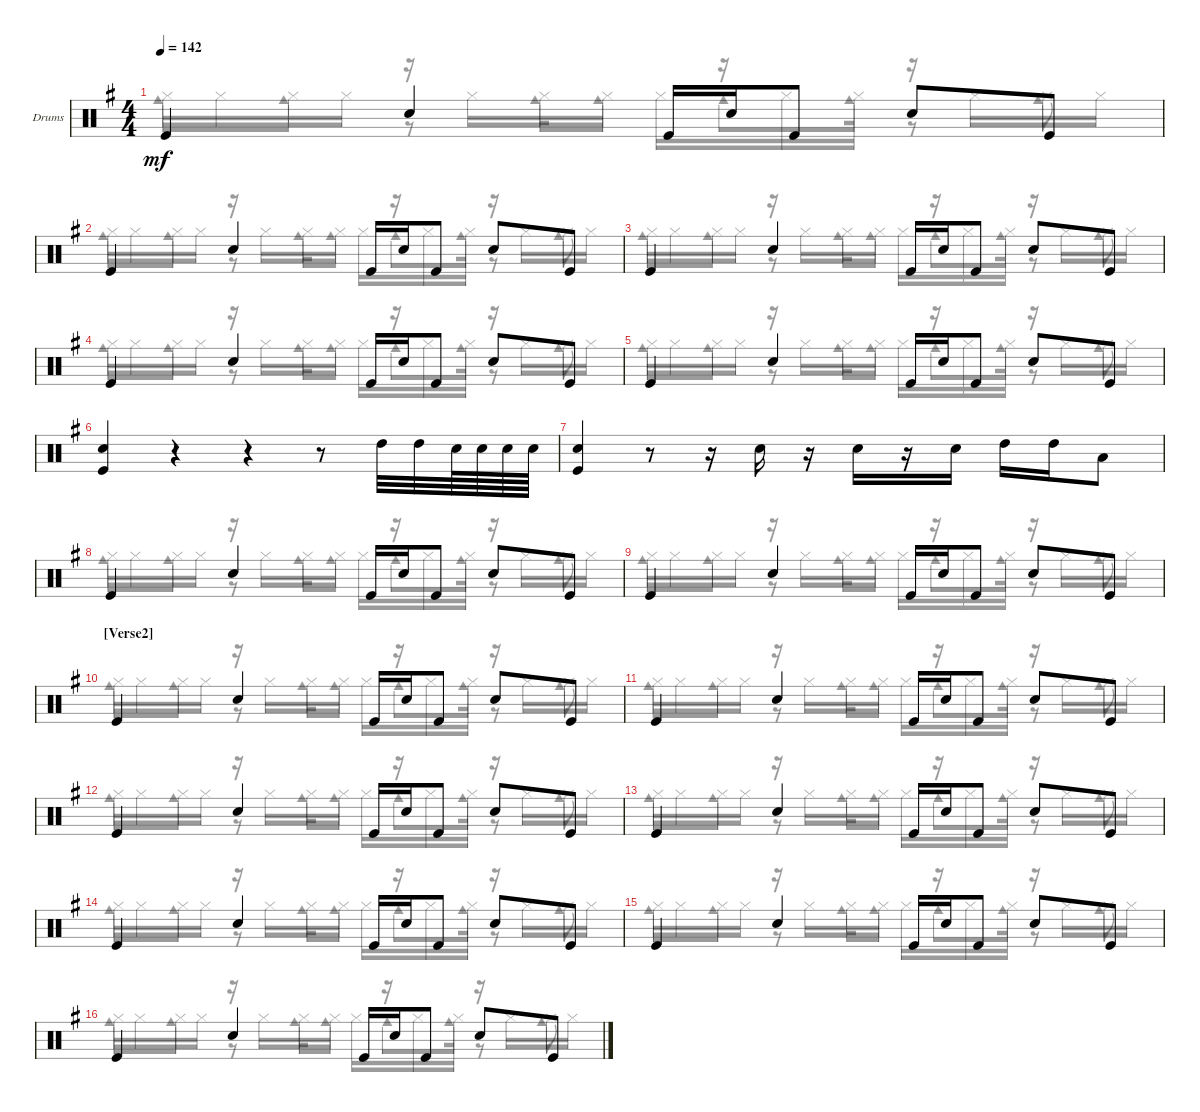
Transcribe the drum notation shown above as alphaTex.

\bracketExtendMode groupsimilarinstruments
\firstSystemTrackNameOrientation horizontal
\otherSystemsTrackNameOrientation horizontal
\track ("Drumkit" "Drums") {instrument percussion}
\staff {score}
\articulation defaults
\voice
\ts (4 4)
\tempo 142
\clef neutral
\ks eminor "Kick (hit)".4{dy mf} "Snare (hit) 2".4 "Kick (hit)".16 "Snare (hit) 2".16 "Kick (hit)".8 "Snare (hit) 2".8 "Kick (hit)".8
|
"Kick (hit)".4 "Snare (hit) 2".4 "Kick (hit)".16 "Snare (hit) 2".16 "Kick (hit)".8 "Snare (hit) 2".8 "Kick (hit)".8 |
"Kick (hit)".4 "Snare (hit) 2".4 "Kick (hit)".16 "Snare (hit) 2".16 "Kick (hit)".8 "Snare (hit) 2".8 "Kick (hit)".8 |
"Kick (hit)".4 "Snare (hit) 2".4 "Kick (hit)".16 "Snare (hit) 2".16 "Kick (hit)".8 "Snare (hit) 2".8 "Kick (hit)".8 |
"Kick (hit)".4 "Snare (hit) 2".4 "Kick (hit)".16 "Snare (hit) 2".16 "Kick (hit)".8 "Snare (hit) 2".8 "Kick (hit)".8 |
("Kick (hit)" "Snare (hit) 2").4 r.4 r.4 r.8 "High Tom (hit)".32 "High Tom (hit)".32 "Snare (hit) 2".64 "Snare (hit) 2".64 "Snare (hit) 2".64 "Snare (hit) 2".64 |
("Kick (hit)" "Snare (hit) 2").4 r.8 r.16 "Snare (hit) 2".16 r.16 "Snare (hit) 2".16 r.16 "Snare (hit) 2".16 "High Tom (hit)".16 "High Tom (hit)".16 "Low Tom (hit)".8 |
"Kick (hit)".4 "Snare (hit) 2".4 "Kick (hit)".16 "Snare (hit) 2".16 "Kick (hit)".8 "Snare (hit) 2".8 "Kick (hit)".8 |
"Kick (hit)".4 "Snare (hit) 2".4 "Kick (hit)".16 "Snare (hit) 2".16 "Kick (hit)".8 "Snare (hit) 2".8 "Kick (hit)".8 |
\section ("" "[Verse2]")
"Kick (hit)".4 "Snare (hit) 2".4 "Kick (hit)".16 "Snare (hit) 2".16 "Kick (hit)".8 "Snare (hit) 2".8 "Kick (hit)".8 |
"Kick (hit)".4 "Snare (hit) 2".4 "Kick (hit)".16 "Snare (hit) 2".16 "Kick (hit)".8 "Snare (hit) 2".8 "Kick (hit)".8 |
"Kick (hit)".4 "Snare (hit) 2".4 "Kick (hit)".16 "Snare (hit) 2".16 "Kick (hit)".8 "Snare (hit) 2".8 "Kick (hit)".8 |
"Kick (hit)".4 "Snare (hit) 2".4 "Kick (hit)".16 "Snare (hit) 2".16 "Kick (hit)".8 "Snare (hit) 2".8 "Kick (hit)".8 |
"Kick (hit)".4 "Snare (hit) 2".4 "Kick (hit)".16 "Snare (hit) 2".16 "Kick (hit)".8 "Snare (hit) 2".8 "Kick (hit)".8 |
"Kick (hit)".4 "Snare (hit) 2".4 "Kick (hit)".16 "Snare (hit) 2".16 "Kick (hit)".8 "Snare (hit) 2".8 "Kick (hit)".8 |
"Kick (hit)".4 "Snare (hit) 2".4 "Kick (hit)".16 "Snare (hit) 2".16 "Kick (hit)".8 "Snare (hit) 2".8 "Kick (hit)".8
\voice
\clef neutral
\ottava regular
\simile none
\ks eminor "Hi-Hat (closed)".16{dy mf} "Hi-Hat (closed)".16 "Hi-Hat (closed)".16 "Hi-Hat (closed)".16
r.16 "Hi-Hat (closed)".16 "Hi-Hat (closed)".16 "Hi-Hat (closed)".16 "Hi-Hat (closed)".16 r.16 "Hi-Hat (closed)".16 "Hi-Hat (closed)".16 r.16 "Hi-Hat (closed)".16 "Hi-Hat (closed)".16 "Hi-Hat (closed)".16 |
"Hi-Hat (closed)".16 "Hi-Hat (closed)".16 "Hi-Hat (closed)".16 "Hi-Hat (closed)".16 r.16 "Hi-Hat (closed)".16 "Hi-Hat (closed)".16 "Hi-Hat (closed)".16 "Hi-Hat (closed)".16 r.16 "Hi-Hat (closed)".16 "Hi-Hat (closed)".16 r.16 "Hi-Hat (closed)".16 "Hi-Hat (closed)".16 "Hi-Hat (closed)".16 |
"Hi-Hat (closed)".16 "Hi-Hat (closed)".16 "Hi-Hat (closed)".16 "Hi-Hat (closed)".16 r.16 "Hi-Hat (closed)".16 "Hi-Hat (closed)".16 "Hi-Hat (closed)".16 "Hi-Hat (closed)".16 r.16 "Hi-Hat (closed)".16 "Hi-Hat (closed)".16 r.16 "Hi-Hat (closed)".16 "Hi-Hat (closed)".16 "Hi-Hat (closed)".16 |
"Hi-Hat (closed)".16 "Hi-Hat (closed)".16 "Hi-Hat (closed)".16 "Hi-Hat (closed)".16 r.16 "Hi-Hat (closed)".16 "Hi-Hat (closed)".16 "Hi-Hat (closed)".16 "Hi-Hat (closed)".16 r.16 "Hi-Hat (closed)".16 "Hi-Hat (closed)".16 r.16 "Hi-Hat (closed)".16 "Hi-Hat (closed)".16 "Hi-Hat (closed)".16 |
"Hi-Hat (closed)".16 "Hi-Hat (closed)".16 "Hi-Hat (closed)".16 "Hi-Hat (closed)".16 r.16 "Hi-Hat (closed)".16 "Hi-Hat (closed)".16 "Hi-Hat (closed)".16 "Hi-Hat (closed)".16 r.16 "Hi-Hat (closed)".16 "Hi-Hat (closed)".16 r.16 "Hi-Hat (closed)".16 "Hi-Hat (closed)".16 "Hi-Hat (closed)".16 |
|
|
"Hi-Hat (closed)".16 "Hi-Hat (closed)".16 "Hi-Hat (closed)".16 "Hi-Hat (closed)".16 r.16 "Hi-Hat (closed)".16 "Hi-Hat (closed)".16 "Hi-Hat (closed)".16 "Hi-Hat (closed)".16 r.16 "Hi-Hat (closed)".16 "Hi-Hat (closed)".16 r.16 "Hi-Hat (closed)".16 "Hi-Hat (closed)".16 "Hi-Hat (closed)".16 |
"Hi-Hat (closed)".16 "Hi-Hat (closed)".16 "Hi-Hat (closed)".16 "Hi-Hat (closed)".16 r.16 "Hi-Hat (closed)".16 "Hi-Hat (closed)".16 "Hi-Hat (closed)".16 "Hi-Hat (closed)".16 r.16 "Hi-Hat (closed)".16 "Hi-Hat (closed)".16 r.16 "Hi-Hat (closed)".16 "Hi-Hat (closed)".16 "Hi-Hat (closed)".16 |
"Hi-Hat (closed)".16 "Hi-Hat (closed)".16 "Hi-Hat (closed)".16 "Hi-Hat (closed)".16 r.16 "Hi-Hat (closed)".16 "Hi-Hat (closed)".16 "Hi-Hat (closed)".16 "Hi-Hat (closed)".16 r.16 "Hi-Hat (closed)".16 "Hi-Hat (closed)".16 r.16 "Hi-Hat (closed)".16 "Hi-Hat (closed)".16 "Hi-Hat (closed)".16 |
"Hi-Hat (closed)".16 "Hi-Hat (closed)".16 "Hi-Hat (closed)".16 "Hi-Hat (closed)".16 r.16 "Hi-Hat (closed)".16 "Hi-Hat (closed)".16 "Hi-Hat (closed)".16 "Hi-Hat (closed)".16 r.16 "Hi-Hat (closed)".16 "Hi-Hat (closed)".16 r.16 "Hi-Hat (closed)".16 "Hi-Hat (closed)".16 "Hi-Hat (closed)".16 |
"Hi-Hat (closed)".16 "Hi-Hat (closed)".16 "Hi-Hat (closed)".16 "Hi-Hat (closed)".16 r.16 "Hi-Hat (closed)".16 "Hi-Hat (closed)".16 "Hi-Hat (closed)".16 "Hi-Hat (closed)".16 r.16 "Hi-Hat (closed)".16 "Hi-Hat (closed)".16 r.16 "Hi-Hat (closed)".16 "Hi-Hat (closed)".16 "Hi-Hat (closed)".16 |
"Hi-Hat (closed)".16 "Hi-Hat (closed)".16 "Hi-Hat (closed)".16 "Hi-Hat (closed)".16 r.16 "Hi-Hat (closed)".16 "Hi-Hat (closed)".16 "Hi-Hat (closed)".16 "Hi-Hat (closed)".16 r.16 "Hi-Hat (closed)".16 "Hi-Hat (closed)".16 r.16 "Hi-Hat (closed)".16 "Hi-Hat (closed)".16 "Hi-Hat (closed)".16 |
"Hi-Hat (closed)".16 "Hi-Hat (closed)".16 "Hi-Hat (closed)".16 "Hi-Hat (closed)".16 r.16 "Hi-Hat (closed)".16 "Hi-Hat (closed)".16 "Hi-Hat (closed)".16 "Hi-Hat (closed)".16 r.16 "Hi-Hat (closed)".16 "Hi-Hat (closed)".16 r.16 "Hi-Hat (closed)".16 "Hi-Hat (closed)".16 "Hi-Hat (closed)".16 |
"Hi-Hat (closed)".16 "Hi-Hat (closed)".16 "Hi-Hat (closed)".16 "Hi-Hat (closed)".16 r.16 "Hi-Hat (closed)".16 "Hi-Hat (closed)".16 "Hi-Hat (closed)".16 "Hi-Hat (closed)".16 r.16 "Hi-Hat (closed)".16 "Hi-Hat (closed)".16 r.16 "Hi-Hat (closed)".16 "Hi-Hat (closed)".16 "Hi-Hat (closed)".16 |
"Hi-Hat (closed)".16 "Hi-Hat (closed)".16 "Hi-Hat (closed)".16 "Hi-Hat (closed)".16 r.16 "Hi-Hat (closed)".16 "Hi-Hat (closed)".16 "Hi-Hat (closed)".16 "Hi-Hat (closed)".16 r.16 "Hi-Hat (closed)".16 "Hi-Hat (closed)".16 r.16 "Hi-Hat (closed)".16 "Hi-Hat (closed)".16 "Hi-Hat (closed)".16
\voice
\clef neutral
\ottava regular
\simile none
\ks eminor "Cowbell medium (hit)".8{dy mf} "Cowbell medium (hit)".8
r.8 "Cowbell medium (hit)".16 "Cowbell medium (hit)".8 "Cowbell medium (hit)".8 "Cowbell medium (hit)".16 r.8 "Cowbell medium (hit)".8 |
"Cowbell medium (hit)".8 "Cowbell medium (hit)".8 r.8 "Cowbell medium (hit)".16 "Cowbell medium (hit)".8 "Cowbell medium (hit)".8 "Cowbell medium (hit)".16 r.8 "Cowbell medium (hit)".8 |
"Cowbell medium (hit)".8 "Cowbell medium (hit)".8 r.8 "Cowbell medium (hit)".16 "Cowbell medium (hit)".8 "Cowbell medium (hit)".8 "Cowbell medium (hit)".16 r.8 "Cowbell medium (hit)".8 |
"Cowbell medium (hit)".8 "Cowbell medium (hit)".8 r.8 "Cowbell medium (hit)".16 "Cowbell medium (hit)".8 "Cowbell medium (hit)".8 "Cowbell medium (hit)".16 r.8 "Cowbell medium (hit)".8 |
"Cowbell medium (hit)".8 "Cowbell medium (hit)".8 r.8 "Cowbell medium (hit)".16 "Cowbell medium (hit)".8 "Cowbell medium (hit)".8 "Cowbell medium (hit)".16 r.8 "Cowbell medium (hit)".8 |
|
|
"Cowbell medium (hit)".8 "Cowbell medium (hit)".8 r.8 "Cowbell medium (hit)".16 "Cowbell medium (hit)".8 "Cowbell medium (hit)".8 "Cowbell medium (hit)".16 r.8 "Cowbell medium (hit)".8 |
"Cowbell medium (hit)".8 "Cowbell medium (hit)".8 r.8 "Cowbell medium (hit)".16 "Cowbell medium (hit)".8 "Cowbell medium (hit)".8 "Cowbell medium (hit)".16 r.8 "Cowbell medium (hit)".8 |
"Cowbell medium (hit)".8 "Cowbell medium (hit)".8 r.8 "Cowbell medium (hit)".16 "Cowbell medium (hit)".8 "Cowbell medium (hit)".8 "Cowbell medium (hit)".16 r.8 "Cowbell medium (hit)".8 |
"Cowbell medium (hit)".8 "Cowbell medium (hit)".8 r.8 "Cowbell medium (hit)".16 "Cowbell medium (hit)".8 "Cowbell medium (hit)".8 "Cowbell medium (hit)".16 r.8 "Cowbell medium (hit)".8 |
"Cowbell medium (hit)".8 "Cowbell medium (hit)".8 r.8 "Cowbell medium (hit)".16 "Cowbell medium (hit)".8 "Cowbell medium (hit)".8 "Cowbell medium (hit)".16 r.8 "Cowbell medium (hit)".8 |
"Cowbell medium (hit)".8 "Cowbell medium (hit)".8 r.8 "Cowbell medium (hit)".16 "Cowbell medium (hit)".8 "Cowbell medium (hit)".8 "Cowbell medium (hit)".16 r.8 "Cowbell medium (hit)".8 |
"Cowbell medium (hit)".8 "Cowbell medium (hit)".8 r.8 "Cowbell medium (hit)".16 "Cowbell medium (hit)".8 "Cowbell medium (hit)".8 "Cowbell medium (hit)".16 r.8 "Cowbell medium (hit)".8 |
"Cowbell medium (hit)".8 "Cowbell medium (hit)".8 r.8 "Cowbell medium (hit)".16 "Cowbell medium (hit)".8 "Cowbell medium (hit)".8 "Cowbell medium (hit)".16 r.8 "Cowbell medium (hit)".8 |
"Cowbell medium (hit)".8 "Cowbell medium (hit)".8 r.8 "Cowbell medium (hit)".16 "Cowbell medium (hit)".8 "Cowbell medium (hit)".8 "Cowbell medium (hit)".16 r.8 "Cowbell medium (hit)".8
